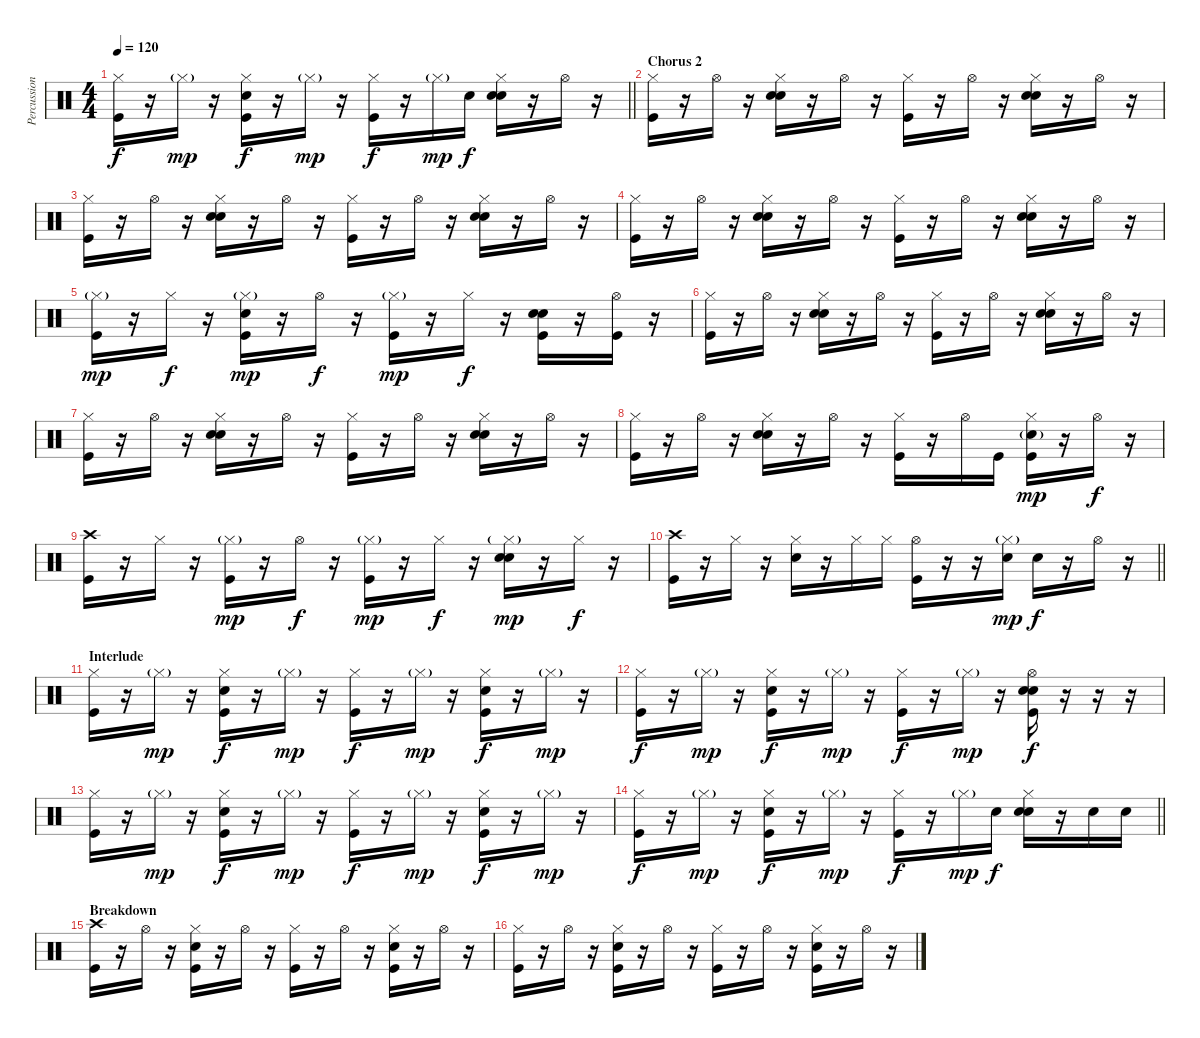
\track ("Percussion" "Percussion") {instrument percussion}
\staff {score}
\articulation defaults
\ts (4 4)
\tempo 120
\clef neutral
\barLineRight lightlight
\ks c
("Hi-Hat (closed)" "Kick (hit)").16{dy f} r.16 "Hi-Hat (closed)"{g}.16{dy mp} r.16 ("Hi-Hat (closed)" "Snare (hit) 2" "Kick (hit)").16{dy f} r.16 "Hi-Hat (closed)"{g}.16{dy mp} r.16 ("Hi-Hat (closed)" "Kick (hit)").16{dy f} r.16 "Hi-Hat (closed)"{g}.16{dy mp} "Snare (hit) 2".16{dy f} ("Hi-Hat (closed)" "Hand Clap (hit)" "Snare (hit) 2").16 r.16 "Hi-Hat (open)".16 r.16 |
\section ("" "Chorus 2")
("Hi-Hat (closed)" "Kick (hit)").16 r.16 "Hi-Hat (open)".16 r.16 ("Hi-Hat (closed)" "Hand Clap (hit)" "Snare (hit) 2").16 r.16 "Hi-Hat (open)".16 r.16 ("Hi-Hat (closed)" "Kick (hit)").16 r.16 "Hi-Hat (open)".16 r.16 ("Hi-Hat (closed)" "Hand Clap (hit)" "Snare (hit) 2").16 r.16 "Hi-Hat (open)".16 r.16 |
("Hi-Hat (closed)" "Kick (hit)").16 r.16 "Hi-Hat (open)".16 r.16 ("Hi-Hat (closed)" "Hand Clap (hit)" "Snare (hit) 2").16 r.16 "Hi-Hat (open)".16 r.16 ("Hi-Hat (closed)" "Kick (hit)").16 r.16 "Hi-Hat (open)".16 r.16 ("Hi-Hat (closed)" "Hand Clap (hit)" "Snare (hit) 2").16 r.16 "Hi-Hat (open)".16 r.16 |
("Hi-Hat (closed)" "Kick (hit)").16 r.16 "Hi-Hat (open)".16 r.16 ("Hi-Hat (closed)" "Hand Clap (hit)" "Snare (hit) 2").16 r.16 "Hi-Hat (open)".16 r.16 ("Hi-Hat (closed)" "Kick (hit)").16 r.16 "Hi-Hat (open)".16 r.16 ("Hi-Hat (closed)" "Hand Clap (hit)" "Snare (hit) 2").16 r.16 "Hi-Hat (open)".16 r.16 |
("Hi-Hat (closed)"{g} "Kick (hit)").16{dy mp} r.16 "Hi-Hat (closed)".16{dy f} r.16 ("Hi-Hat (closed)"{g} "Hand Clap (hit)" "Kick (hit)").16{dy mp} r.16 "Hi-Hat (open)".16{dy f} r.16 ("Hi-Hat (closed)"{g} "Kick (hit)").16{dy mp} r.16 "Hi-Hat (closed)".16{dy f} r.16 ("Hand Clap (hit)" "Snare (hit) 2" "Kick (hit)").16 r.16 ("Hi-Hat (open)" "Kick (hit)").16 r.16 |
("Hi-Hat (closed)" "Kick (hit)").16 r.16 "Hi-Hat (open)".16 r.16 ("Hi-Hat (closed)" "Hand Clap (hit)" "Snare (hit) 2").16 r.16 "Hi-Hat (open)".16 r.16 ("Hi-Hat (closed)" "Kick (hit)").16 r.16 "Hi-Hat (open)".16 r.16 ("Hi-Hat (closed)" "Hand Clap (hit)" "Snare (hit) 2").16 r.16 "Hi-Hat (open)".16 r.16 |
("Hi-Hat (closed)" "Kick (hit)").16 r.16 "Hi-Hat (open)".16 r.16 ("Hi-Hat (closed)" "Hand Clap (hit)" "Snare (hit) 2").16 r.16 "Hi-Hat (open)".16 r.16 ("Hi-Hat (closed)" "Kick (hit)").16 r.16 "Hi-Hat (open)".16 r.16 ("Hi-Hat (closed)" "Hand Clap (hit)" "Snare (hit) 2").16 r.16 "Hi-Hat (open)".16 r.16 |
("Hi-Hat (closed)" "Kick (hit)").16 r.16 "Hi-Hat (open)".16 r.16 ("Hi-Hat (closed)" "Hand Clap (hit)" "Snare (hit) 2").16 r.16 "Hi-Hat (open)".16 r.16 ("Hi-Hat (closed)" "Kick (hit)").16 r.16 "Hi-Hat (open)".16 "Kick (hit)".16 ("Hi-Hat (closed)" "Hand Clap (hit)"{g} "Kick (hit)").16{dy mp} r.16 "Hi-Hat (open)".16{dy f} r.16 |
("Crash high (hit)" "Kick (hit)").16 r.16 "Hi-Hat (closed)".16 r.16 ("Hi-Hat (closed)"{g} "Kick (hit)").16{dy mp} r.16 "Hi-Hat (open)".16{dy f} r.16 ("Hi-Hat (closed)"{g} "Kick (hit)").16{dy mp} r.16 "Hi-Hat (closed)".16{dy f} r.16 ("Hi-Hat (closed)"{g} "Hand Clap (hit)" "Snare (hit) 2").16{dy mp} r.16 "Hi-Hat (closed)".16{dy f} r.16 |
\barLineRight lightlight
("Crash high (hit)" "Kick (hit)").16 r.16 "Hi-Hat (closed)".16 r.16 ("Hi-Hat (closed)" "Hand Clap (hit)").16 r.16 "Hi-Hat (closed)".16 "Hi-Hat (closed)".16 ("Hi-Hat (open)" "Kick (hit)").16 r.16 r.16 ("Hi-Hat (closed)"{g} "Snare (hit) 2").16{dy mp} "Snare (hit) 2".16{dy f} r.16 "Hi-Hat (open)".16 r.16 |
\section ("" "Interlude")
("Hi-Hat (closed)" "Kick (hit)").16 r.16 "Hi-Hat (closed)"{g}.16{dy mp} r.16 ("Hi-Hat (closed)" "Snare (hit) 2" "Kick (hit)").16{dy f} r.16 "Hi-Hat (closed)"{g}.16{dy mp} r.16 ("Hi-Hat (closed)" "Kick (hit)").16{dy f} r.16 "Hi-Hat (closed)"{g}.16{dy mp} r.16 ("Hi-Hat (closed)" "Snare (hit) 2" "Kick (hit)").16{dy f} r.16 "Hi-Hat (closed)"{g}.16{dy mp} r.16 |
("Hi-Hat (closed)" "Kick (hit)").16{dy f} r.16 "Hi-Hat (closed)"{g}.16{dy mp} r.16 ("Hi-Hat (closed)" "Snare (hit) 2" "Kick (hit)").16{dy f} r.16 "Hi-Hat (closed)"{g}.16{dy mp} r.16 ("Hi-Hat (closed)" "Kick (hit)").16{dy f} r.16 "Hi-Hat (closed)"{g}.16{dy mp} r.16 ("Hi-Hat (open)" "Hand Clap (hit)" "Snare (hit) 2" "Kick (hit)").16{dy f} r.16 r.16 r.16 |
("Hi-Hat (closed)" "Kick (hit)").16 r.16 "Hi-Hat (closed)"{g}.16{dy mp} r.16 ("Hi-Hat (closed)" "Snare (hit) 2" "Kick (hit)").16{dy f} r.16 "Hi-Hat (closed)"{g}.16{dy mp} r.16 ("Hi-Hat (closed)" "Kick (hit)").16{dy f} r.16 "Hi-Hat (closed)"{g}.16{dy mp} r.16 ("Hi-Hat (closed)" "Snare (hit) 2" "Kick (hit)").16{dy f} r.16 "Hi-Hat (closed)"{g}.16{dy mp} r.16 |
\barLineRight lightlight
("Hi-Hat (closed)" "Kick (hit)").16{dy f} r.16 "Hi-Hat (closed)"{g}.16{dy mp} r.16 ("Hi-Hat (closed)" "Snare (hit) 2" "Kick (hit)").16{dy f} r.16 "Hi-Hat (closed)"{g}.16{dy mp} r.16 ("Hi-Hat (closed)" "Kick (hit)").16{dy f} r.16 "Hi-Hat (closed)"{g}.16{dy mp} "Snare (hit) 2".16{dy f} ("Hi-Hat (closed)" "Hand Clap (hit)" "Snare (hit) 2").16 r.16 "Snare (hit) 2".16 "Snare (hit) 2".16 |
\section ("" "Breakdown")
("Crash high (hit)" "Kick (hit)").16 r.16 "Hi-Hat (open)".16 r.16 ("Hi-Hat (closed)" "Snare (hit) 2" "Kick (hit)").16 r.16 "Hi-Hat (open)".16 r.16 ("Hi-Hat (closed)" "Kick (hit)").16 r.16 "Hi-Hat (open)".16 r.16 ("Hi-Hat (closed)" "Snare (hit) 2" "Kick (hit)").16 r.16 "Hi-Hat (open)".16 r.16 |
("Hi-Hat (closed)" "Kick (hit)").16 r.16 "Hi-Hat (open)".16 r.16 ("Hi-Hat (closed)" "Snare (hit) 2" "Kick (hit)").16 r.16 "Hi-Hat (open)".16 r.16 ("Hi-Hat (closed)" "Kick (hit)").16 r.16 "Hi-Hat (open)".16 r.16 ("Hi-Hat (closed)" "Snare (hit) 2" "Kick (hit)").16 r.16 "Hi-Hat (open)".16 r.16
